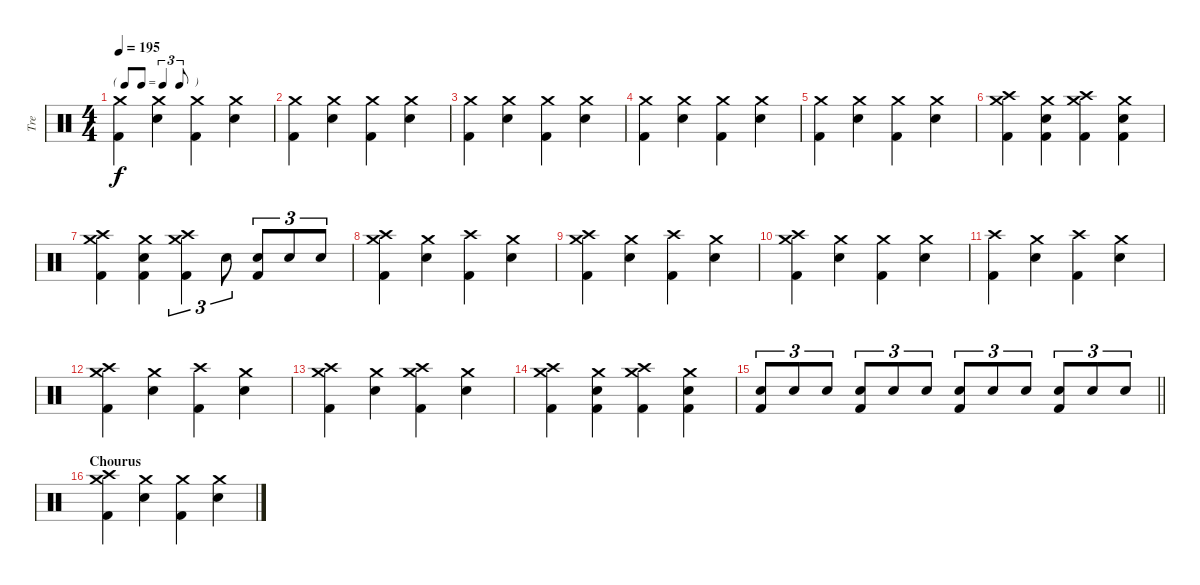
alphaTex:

\track ("Tre" "Tre") {instrument percussion}
\staff {score}
\articulation defaults
\ts (4 4)
\tf triplet8th
\tempo 195
\clef neutral
\ks c
("Crash medium (hit)" "Kick (hit) 2").4{dy f} ("Crash medium (hit)" "Snare (hit) 2").4 ("Crash medium (hit)" "Kick (hit) 2").4 ("Crash medium (hit)" "Snare (hit) 2").4 |
("Crash medium (hit)" "Kick (hit) 2").4 ("Crash medium (hit)" "Snare (hit) 2").4 ("Crash medium (hit)" "Kick (hit) 2").4 ("Crash medium (hit)" "Snare (hit) 2").4 |
("Crash medium (hit)" "Kick (hit) 2").4 ("Crash medium (hit)" "Snare (hit) 2").4 ("Crash medium (hit)" "Kick (hit) 2").4 ("Crash medium (hit)" "Snare (hit) 2").4 |
("Crash medium (hit)" "Kick (hit) 2").4 ("Crash medium (hit)" "Snare (hit) 2").4 ("Crash medium (hit)" "Kick (hit) 2").4 ("Crash medium (hit)" "Snare (hit) 2").4 |
("Crash medium (hit)" "Kick (hit) 2").4 ("Crash medium (hit)" "Snare (hit) 2").4 ("Crash medium (hit)" "Kick (hit) 2").4 ("Crash medium (hit)" "Snare (hit) 2").4 |
("Crash medium (hit)" "Crash high (hit)" "Kick (hit) 2").4 ("Crash medium (hit)" "Snare (hit) 2" "Kick (hit) 2").4 ("Crash medium (hit)" "Crash high (hit)" "Kick (hit) 2").4 ("Crash medium (hit)" "Snare (hit) 2" "Kick (hit) 2").4 |
("Crash medium (hit)" "Crash high (hit)" "Kick (hit) 2").4 ("Crash medium (hit)" "Snare (hit) 2" "Kick (hit) 2").4 ("Crash medium (hit)" "Crash high (hit)" "Kick (hit) 2").4{tu (3 2)} "Snare (hit) 2".8{tu (3 2)} ("Snare (hit) 2" "Kick (hit) 2").8{tu (3 2)} "Snare (hit) 2".8{tu (3 2)} "Snare (hit) 2".8{tu (3 2)} |
("Crash medium (hit)" "Crash high (hit)" "Kick (hit) 2").4 ("Crash medium (hit)" "Snare (hit) 2").4 ("Crash high (hit)" "Kick (hit) 2").4 ("Crash medium (hit)" "Snare (hit) 2").4 |
("Crash medium (hit)" "Crash high (hit)" "Kick (hit) 2").4 ("Crash medium (hit)" "Snare (hit) 2").4 ("Crash high (hit)" "Kick (hit) 2").4 ("Crash medium (hit)" "Snare (hit) 2").4 |
("Crash high (hit)" "Crash medium (hit)" "Kick (hit) 2").4 ("Crash medium (hit)" "Snare (hit) 2").4 ("Crash medium (hit)" "Kick (hit) 2").4 ("Crash medium (hit)" "Snare (hit) 2").4 |
("Crash high (hit)" "Kick (hit) 2").4 ("Crash medium (hit)" "Snare (hit) 2").4 ("Crash high (hit)" "Kick (hit) 2").4 ("Crash medium (hit)" "Snare (hit) 2").4 |
("Crash medium (hit)" "Crash high (hit)" "Kick (hit) 2").4 ("Crash medium (hit)" "Snare (hit) 2").4 ("Crash high (hit)" "Kick (hit) 2").4 ("Crash medium (hit)" "Snare (hit) 2").4 |
("Crash medium (hit)" "Crash high (hit)" "Kick (hit) 2").4 ("Crash medium (hit)" "Snare (hit) 2").4 ("Crash medium (hit)" "Crash high (hit)" "Kick (hit) 2").4 ("Crash medium (hit)" "Snare (hit) 2").4 |
("Crash medium (hit)" "Crash high (hit)" "Kick (hit) 2").4 ("Crash medium (hit)" "Snare (hit) 2" "Kick (hit) 2").4 ("Crash medium (hit)" "Crash high (hit)" "Kick (hit) 2").4 ("Crash medium (hit)" "Snare (hit) 2" "Kick (hit) 2").4 |
\barLineRight lightlight
("Snare (hit) 2" "Kick (hit) 2").8{tu (3 2)} "Snare (hit) 2".8{tu (3 2)} "Snare (hit) 2".8{tu (3 2)} ("Snare (hit) 2" "Kick (hit) 2").8{tu (3 2)} "Snare (hit) 2".8{tu (3 2)} "Snare (hit) 2".8{tu (3 2)} ("Snare (hit) 2" "Kick (hit) 2").8{tu (3 2)} "Snare (hit) 2".8{tu (3 2)} "Snare (hit) 2".8{tu (3 2)} ("Snare (hit) 2" "Kick (hit) 2").8{tu (3 2)} "Snare (hit) 2".8{tu (3 2)} "Snare (hit) 2".8{tu (3 2)} |
\section ("" "Chourus")
("Crash medium (hit)" "Crash high (hit)" "Kick (hit) 2").4 ("Crash medium (hit)" "Snare (hit) 2").4 ("Crash medium (hit)" "Kick (hit) 2").4 ("Crash medium (hit)" "Snare (hit) 2").4
